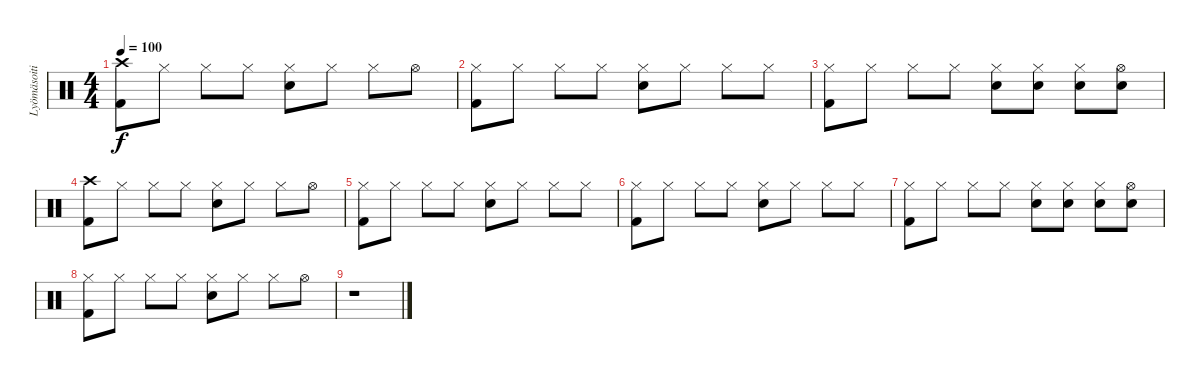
\track ("Lyömäsoitin" "Lyömäsoiti") {instrument percussion}
\staff {score}
\articulation defaults
\ts (4 4)
\tempo 100
\clef neutral
\ks c
("Crash high (hit)" "Kick (hit) 2").8{dy f} "Hi-Hat (closed)".8 "Hi-Hat (closed)".8 "Hi-Hat (closed)".8 ("Hi-Hat (closed)" "Snare (hit) 2").8 "Hi-Hat (closed)".8 "Hi-Hat (closed)".8 "Hi-Hat (open)".8 |
("Hi-Hat (closed)" "Kick (hit) 2").8 "Hi-Hat (closed)".8 "Hi-Hat (closed)".8 "Hi-Hat (closed)".8 ("Hi-Hat (closed)" "Snare (hit) 2").8 "Hi-Hat (closed)".8 "Hi-Hat (closed)".8 "Hi-Hat (closed)".8 |
("Hi-Hat (closed)" "Kick (hit) 2").8 "Hi-Hat (closed)".8 "Hi-Hat (closed)".8 "Hi-Hat (closed)".8 ("Hi-Hat (closed)" "Snare (hit) 2").8 ("Hi-Hat (closed)" "Snare (hit) 2").8 ("Hi-Hat (closed)" "Snare (hit) 2").8 ("Hi-Hat (open)" "Snare (hit) 2").8 |
("Crash high (hit)" "Kick (hit) 2").8 "Hi-Hat (closed)".8 "Hi-Hat (closed)".8 "Hi-Hat (closed)".8 ("Hi-Hat (closed)" "Snare (hit) 2").8 "Hi-Hat (closed)".8 "Hi-Hat (closed)".8 "Hi-Hat (open)".8 |
("Hi-Hat (closed)" "Kick (hit) 2").8 "Hi-Hat (closed)".8 "Hi-Hat (closed)".8 "Hi-Hat (closed)".8 ("Hi-Hat (closed)" "Snare (hit) 2").8 "Hi-Hat (closed)".8 "Hi-Hat (closed)".8 "Hi-Hat (closed)".8 |
("Hi-Hat (closed)" "Kick (hit) 2").8 "Hi-Hat (closed)".8 "Hi-Hat (closed)".8 "Hi-Hat (closed)".8 ("Hi-Hat (closed)" "Snare (hit) 2").8 "Hi-Hat (closed)".8 "Hi-Hat (closed)".8 "Hi-Hat (closed)".8 |
("Hi-Hat (closed)" "Kick (hit) 2").8 "Hi-Hat (closed)".8 "Hi-Hat (closed)".8 "Hi-Hat (closed)".8 ("Hi-Hat (closed)" "Snare (hit) 2").8 ("Hi-Hat (closed)" "Snare (hit) 2").8 ("Hi-Hat (closed)" "Snare (hit) 2").8 ("Hi-Hat (open)" "Snare (hit) 2").8 |
("Hi-Hat (closed)" "Kick (hit) 2").8 "Hi-Hat (closed)".8 "Hi-Hat (closed)".8 "Hi-Hat (closed)".8 ("Hi-Hat (closed)" "Snare (hit) 2").8 "Hi-Hat (closed)".8 "Hi-Hat (closed)".8 "Hi-Hat (open)".8 |
r.1
